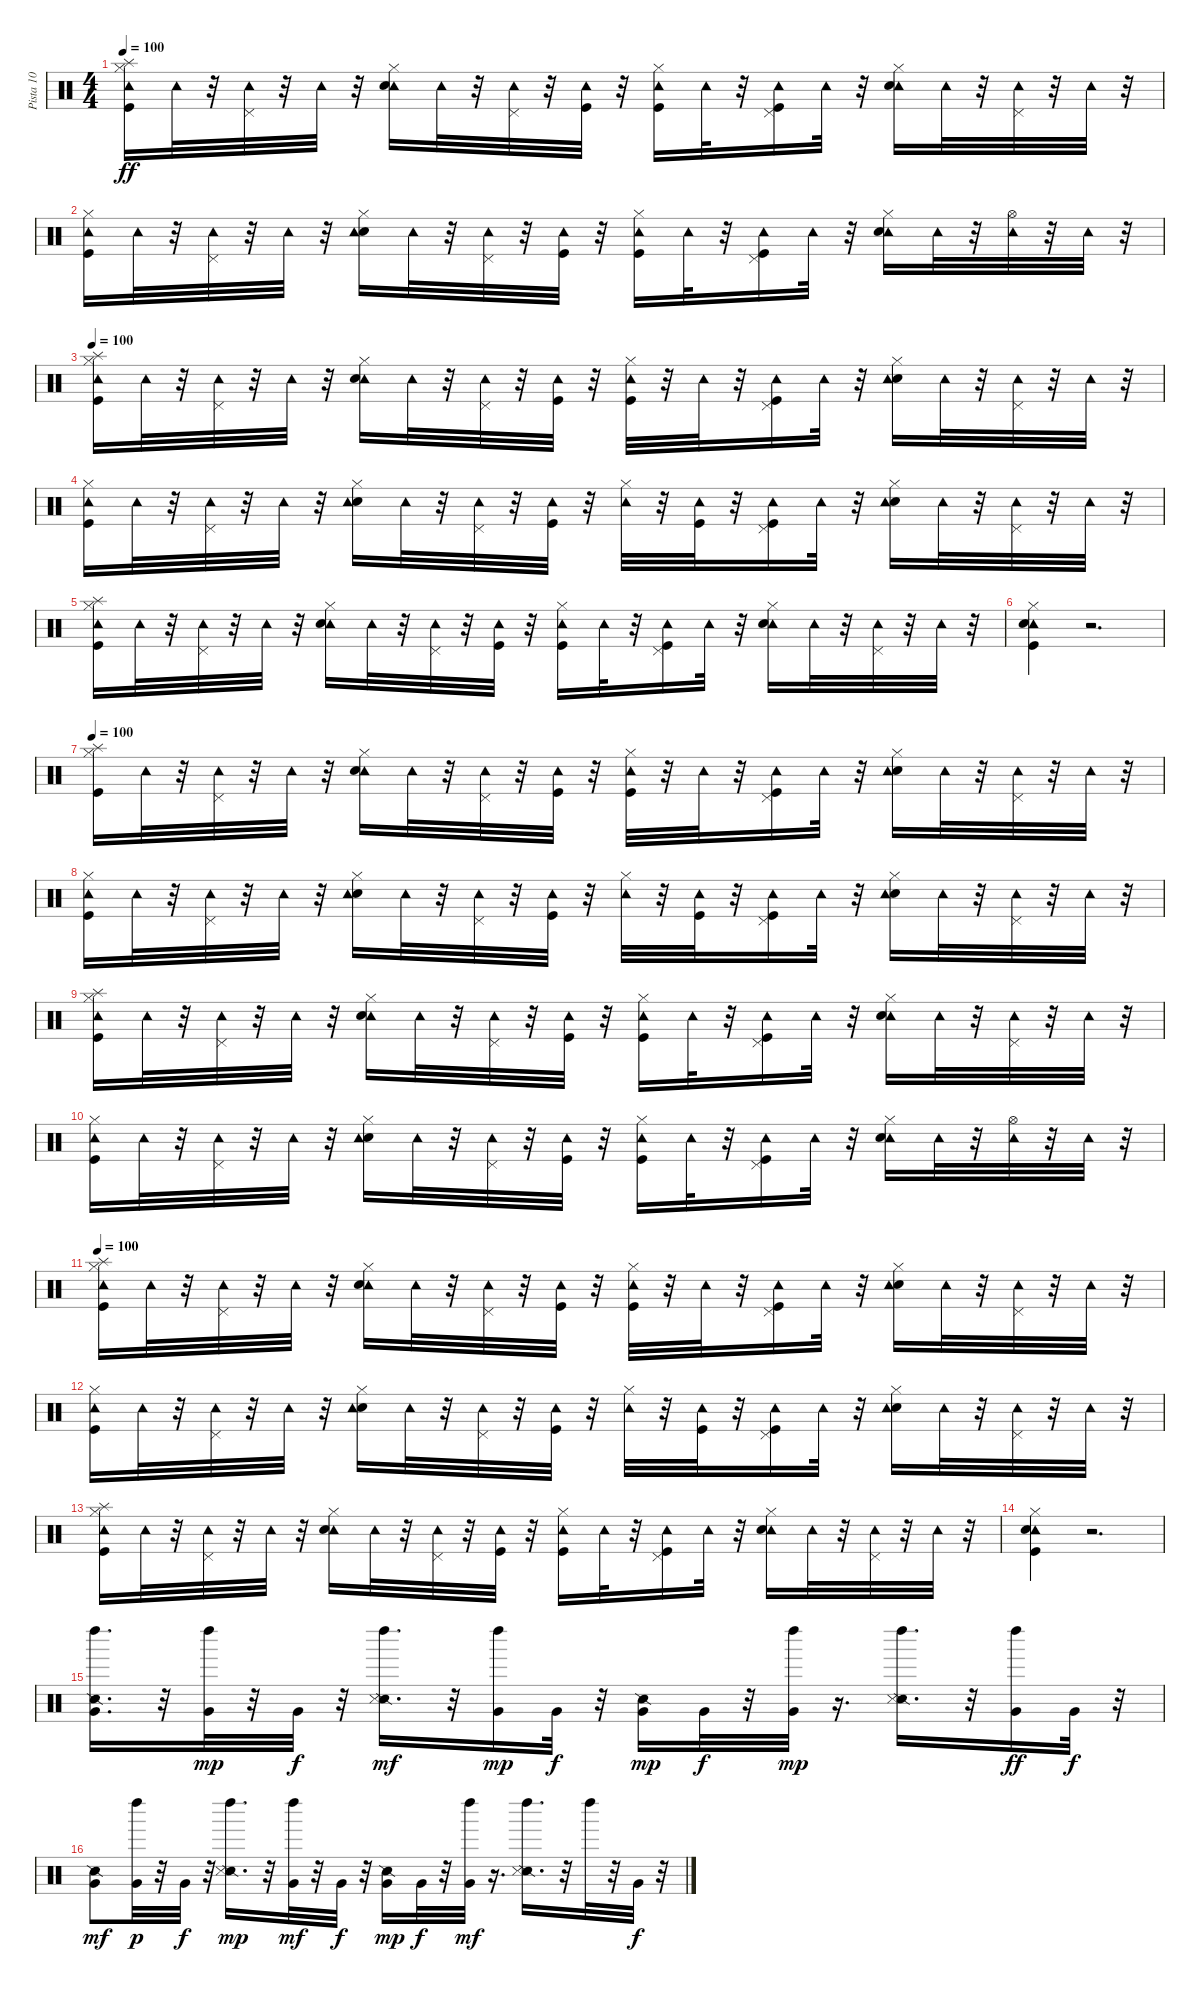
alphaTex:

\track ("Pista 10" "Pista 10") {instrument percussion}
\staff {score}
\articulation defaults
\ts (4 4)
\tempo 100
\clef neutral
\ks c
("Splash (hit)" "Hi-Hat (closed)" "Kick (hit)" "Tambourine (hit)").16{dy ff} "Tambourine (hit)".32 r.32 ("Tambourine (hit)" "Pedal Hi-Hat (hit)").32 r.32 "Tambourine (hit)".32 r.32 ("Tambourine (hit)" "Hi-Hat (closed)" "Snare (hit) 2").16 "Tambourine (hit)".32 r.32 ("Tambourine (hit)" "Pedal Hi-Hat (hit)").32 r.32 ("Tambourine (hit)" "Kick (hit)").32 r.32 ("Tambourine (hit)" "Hi-Hat (closed)" "Kick (hit)").16 "Tambourine (hit)".32 r.32 ("Tambourine (hit)" "Pedal Hi-Hat (hit)" "Kick (hit)").16 "Tambourine (hit)".32 r.32 ("Tambourine (hit)" "Hi-Hat (closed)" "Snare (hit) 2").16 "Tambourine (hit)".32 r.32 ("Tambourine (hit)" "Pedal Hi-Hat (hit)").32 r.32 "Tambourine (hit)".32 r.32 |
("Tambourine (hit)" "Hi-Hat (closed)" "Kick (hit)").16 "Tambourine (hit)".32 r.32 ("Pedal Hi-Hat (hit)" "Tambourine (hit)").32 r.32 "Tambourine (hit)".32 r.32 ("Hi-Hat (closed)" "Snare (hit) 2" "Tambourine (hit)").16 "Tambourine (hit)".32 r.32 ("Tambourine (hit)" "Pedal Hi-Hat (hit)").32 r.32 ("Tambourine (hit)" "Kick (hit)").32 r.32 ("Tambourine (hit)" "Hi-Hat (closed)" "Kick (hit)").16 "Tambourine (hit)".32 r.32 ("Tambourine (hit)" "Pedal Hi-Hat (hit)" "Kick (hit)").16 "Tambourine (hit)".32 r.32 ("Tambourine (hit)" "Hi-Hat (closed)" "Snare (hit) 2").16 "Tambourine (hit)".32 r.32 ("Tambourine (hit)" "Hi-Hat (open)").32 r.32 "Tambourine (hit)".32 r.32 |
\tempo 100
("Tambourine (hit)" "Hi-Hat (closed)" "Splash (hit)" "Kick (hit)").16 "Tambourine (hit)".32 r.32 ("Tambourine (hit)" "Pedal Hi-Hat (hit)").32 r.32 "Tambourine (hit)".32 r.32 ("Tambourine (hit)" "Hi-Hat (closed)" "Snare (hit) 2").16 "Tambourine (hit)".32 r.32 ("Tambourine (hit)" "Pedal Hi-Hat (hit)").32 r.32 ("Kick (hit)" "Tambourine (hit)").32 r.32 ("Tambourine (hit)" "Hi-Hat (closed)" "Kick (hit)").32 r.32 "Tambourine (hit)".32 r.32 ("Pedal Hi-Hat (hit)" "Kick (hit)" "Tambourine (hit)").16 "Tambourine (hit)".32 r.32 ("Hi-Hat (closed)" "Snare (hit) 2" "Tambourine (hit)").16 "Tambourine (hit)".32 r.32 ("Pedal Hi-Hat (hit)" "Tambourine (hit)").32 r.32 "Tambourine (hit)".32 r.32 |
("Hi-Hat (closed)" "Kick (hit)" "Tambourine (hit)").16 "Tambourine (hit)".32 r.32 ("Tambourine (hit)" "Pedal Hi-Hat (hit)").32 r.32 "Tambourine (hit)".32 r.32 ("Hi-Hat (closed)" "Snare (hit) 2" "Tambourine (hit)").16 "Tambourine (hit)".32 r.32 ("Pedal Hi-Hat (hit)" "Tambourine (hit)").32 r.32 ("Kick (hit)" "Tambourine (hit)").32 r.32 ("Hi-Hat (closed)" "Tambourine (hit)").32 r.32 ("Kick (hit)" "Tambourine (hit)").32 r.32 ("Pedal Hi-Hat (hit)" "Kick (hit)" "Tambourine (hit)").16 "Tambourine (hit)".32 r.32 ("Hi-Hat (closed)" "Snare (hit) 2" "Tambourine (hit)").16 "Tambourine (hit)".32 r.32 ("Pedal Hi-Hat (hit)" "Tambourine (hit)").32 r.32 "Tambourine (hit)".32 r.32 |
("Splash (hit)" "Hi-Hat (closed)" "Kick (hit)" "Tambourine (hit)").16 "Tambourine (hit)".32 r.32 ("Tambourine (hit)" "Pedal Hi-Hat (hit)").32 r.32 "Tambourine (hit)".32 r.32 ("Tambourine (hit)" "Hi-Hat (closed)" "Snare (hit) 2").16 "Tambourine (hit)".32 r.32 ("Tambourine (hit)" "Pedal Hi-Hat (hit)").32 r.32 ("Tambourine (hit)" "Kick (hit)").32 r.32 ("Tambourine (hit)" "Hi-Hat (closed)" "Kick (hit)").16 "Tambourine (hit)".32 r.32 ("Tambourine (hit)" "Pedal Hi-Hat (hit)" "Kick (hit)").16 "Tambourine (hit)".32 r.32 ("Tambourine (hit)" "Hi-Hat (closed)" "Snare (hit) 2").16 "Tambourine (hit)".32 r.32 ("Tambourine (hit)" "Pedal Hi-Hat (hit)").32 r.32 "Tambourine (hit)".32 r.32 |
("Tambourine (hit)" "Hi-Hat (closed)" "Kick (hit)" "Snare (hit) 2").4 r.2{d} |
\tempo 100
("Hi-Hat (closed)" "Splash (hit)" "Kick (hit)").16 "Tambourine (hit)".32 r.32 ("Tambourine (hit)" "Pedal Hi-Hat (hit)").32 r.32 "Tambourine (hit)".32 r.32 ("Tambourine (hit)" "Hi-Hat (closed)" "Snare (hit) 2").16 "Tambourine (hit)".32 r.32 ("Tambourine (hit)" "Pedal Hi-Hat (hit)").32 r.32 ("Kick (hit)" "Tambourine (hit)").32 r.32 ("Tambourine (hit)" "Hi-Hat (closed)" "Kick (hit)").32 r.32 "Tambourine (hit)".32 r.32 ("Pedal Hi-Hat (hit)" "Kick (hit)" "Tambourine (hit)").16 "Tambourine (hit)".32 r.32 ("Hi-Hat (closed)" "Snare (hit) 2" "Tambourine (hit)").16 "Tambourine (hit)".32 r.32 ("Pedal Hi-Hat (hit)" "Tambourine (hit)").32 r.32 "Tambourine (hit)".32 r.32 |
("Hi-Hat (closed)" "Kick (hit)" "Tambourine (hit)").16 "Tambourine (hit)".32 r.32 ("Tambourine (hit)" "Pedal Hi-Hat (hit)").32 r.32 "Tambourine (hit)".32 r.32 ("Hi-Hat (closed)" "Snare (hit) 2" "Tambourine (hit)").16 "Tambourine (hit)".32 r.32 ("Pedal Hi-Hat (hit)" "Tambourine (hit)").32 r.32 ("Kick (hit)" "Tambourine (hit)").32 r.32 ("Hi-Hat (closed)" "Tambourine (hit)").32 r.32 ("Kick (hit)" "Tambourine (hit)").32 r.32 ("Pedal Hi-Hat (hit)" "Kick (hit)" "Tambourine (hit)").16 "Tambourine (hit)".32 r.32 ("Hi-Hat (closed)" "Snare (hit) 2" "Tambourine (hit)").16 "Tambourine (hit)".32 r.32 ("Pedal Hi-Hat (hit)" "Tambourine (hit)").32 r.32 "Tambourine (hit)".32 r.32 |
("Splash (hit)" "Hi-Hat (closed)" "Kick (hit)" "Tambourine (hit)").16 "Tambourine (hit)".32 r.32 ("Tambourine (hit)" "Pedal Hi-Hat (hit)").32 r.32 "Tambourine (hit)".32 r.32 ("Tambourine (hit)" "Hi-Hat (closed)" "Snare (hit) 2").16 "Tambourine (hit)".32 r.32 ("Tambourine (hit)" "Pedal Hi-Hat (hit)").32 r.32 ("Tambourine (hit)" "Kick (hit)").32 r.32 ("Tambourine (hit)" "Hi-Hat (closed)" "Kick (hit)").16 "Tambourine (hit)".32 r.32 ("Tambourine (hit)" "Pedal Hi-Hat (hit)" "Kick (hit)").16 "Tambourine (hit)".32 r.32 ("Tambourine (hit)" "Hi-Hat (closed)" "Snare (hit) 2").16 "Tambourine (hit)".32 r.32 ("Tambourine (hit)" "Pedal Hi-Hat (hit)").32 r.32 "Tambourine (hit)".32 r.32 |
("Tambourine (hit)" "Hi-Hat (closed)" "Kick (hit)").16 "Tambourine (hit)".32 r.32 ("Pedal Hi-Hat (hit)" "Tambourine (hit)").32 r.32 "Tambourine (hit)".32 r.32 ("Hi-Hat (closed)" "Snare (hit) 2" "Tambourine (hit)").16 "Tambourine (hit)".32 r.32 ("Tambourine (hit)" "Pedal Hi-Hat (hit)").32 r.32 ("Tambourine (hit)" "Kick (hit)").32 r.32 ("Tambourine (hit)" "Hi-Hat (closed)" "Kick (hit)").16 "Tambourine (hit)".32 r.32 ("Tambourine (hit)" "Pedal Hi-Hat (hit)" "Kick (hit)").16 "Tambourine (hit)".32 r.32 ("Tambourine (hit)" "Hi-Hat (closed)" "Snare (hit) 2").16 "Tambourine (hit)".32 r.32 ("Tambourine (hit)" "Hi-Hat (open)").32 r.32 "Tambourine (hit)".32 r.32 |
\tempo 100
("Tambourine (hit)" "Hi-Hat (closed)" "Splash (hit)" "Kick (hit)").16 "Tambourine (hit)".32 r.32 ("Tambourine (hit)" "Pedal Hi-Hat (hit)").32 r.32 "Tambourine (hit)".32 r.32 ("Tambourine (hit)" "Hi-Hat (closed)" "Snare (hit) 2").16 "Tambourine (hit)".32 r.32 ("Tambourine (hit)" "Pedal Hi-Hat (hit)").32 r.32 ("Kick (hit)" "Tambourine (hit)").32 r.32 ("Tambourine (hit)" "Hi-Hat (closed)" "Kick (hit)").32 r.32 "Tambourine (hit)".32 r.32 ("Pedal Hi-Hat (hit)" "Kick (hit)" "Tambourine (hit)").16 "Tambourine (hit)".32 r.32 ("Hi-Hat (closed)" "Snare (hit) 2" "Tambourine (hit)").16 "Tambourine (hit)".32 r.32 ("Pedal Hi-Hat (hit)" "Tambourine (hit)").32 r.32 "Tambourine (hit)".32 r.32 |
("Hi-Hat (closed)" "Kick (hit)" "Tambourine (hit)").16 "Tambourine (hit)".32 r.32 ("Tambourine (hit)" "Pedal Hi-Hat (hit)").32 r.32 "Tambourine (hit)".32 r.32 ("Hi-Hat (closed)" "Snare (hit) 2" "Tambourine (hit)").16 "Tambourine (hit)".32 r.32 ("Pedal Hi-Hat (hit)" "Tambourine (hit)").32 r.32 ("Kick (hit)" "Tambourine (hit)").32 r.32 ("Hi-Hat (closed)" "Tambourine (hit)").32 r.32 ("Kick (hit)" "Tambourine (hit)").32 r.32 ("Pedal Hi-Hat (hit)" "Kick (hit)" "Tambourine (hit)").16 "Tambourine (hit)".32 r.32 ("Hi-Hat (closed)" "Snare (hit) 2" "Tambourine (hit)").16 "Tambourine (hit)".32 r.32 ("Pedal Hi-Hat (hit)" "Tambourine (hit)").32 r.32 "Tambourine (hit)".32 r.32 |
("Splash (hit)" "Hi-Hat (closed)" "Kick (hit)" "Tambourine (hit)").16 "Tambourine (hit)".32 r.32 ("Tambourine (hit)" "Pedal Hi-Hat (hit)").32 r.32 "Tambourine (hit)".32 r.32 ("Tambourine (hit)" "Hi-Hat (closed)" "Snare (hit) 2").16 "Tambourine (hit)".32 r.32 ("Tambourine (hit)" "Pedal Hi-Hat (hit)").32 r.32 ("Tambourine (hit)" "Kick (hit)").32 r.32 ("Tambourine (hit)" "Hi-Hat (closed)" "Kick (hit)").16 "Tambourine (hit)".32 r.32 ("Tambourine (hit)" "Pedal Hi-Hat (hit)" "Kick (hit)").16 "Tambourine (hit)".32 r.32 ("Tambourine (hit)" "Hi-Hat (closed)" "Snare (hit) 2").16 "Tambourine (hit)".32 r.32 ("Tambourine (hit)" "Pedal Hi-Hat (hit)").32 r.32 "Tambourine (hit)".32 r.32 |
("Tambourine (hit)" "Hi-Hat (closed)" "Kick (hit)" "Snare (hit) 2").4 r.2{d} |
("Snare (side stick) 2" "Very Low Tom (hit)" "Left Maraca (hit)").16{d} r.32 ("Very Low Tom (hit)" "Left Maraca (hit)").32{dy mp} r.32 "Very Low Tom (hit)".32{dy f} r.32 ("Snare (side stick) 2" "Metronome (hit)" "Left Maraca (hit)").16{d dy mf} r.32 ("Very Low Tom (hit)" "Left Maraca (hit)").16{dy mp} "Very Low Tom (hit)".32{dy f} r.32 ("Snare (side stick) 2" "Very Low Tom (hit)").16{dy mp} "Very Low Tom (hit)".32{dy f} r.32 ("Very Low Tom (hit)" "Left Maraca (hit)").32{dy mp} r.16{d} ("Snare (side stick) 2" "Metronome (hit)" "Left Maraca (hit)").16{d} r.32 ("Very Low Tom (hit)" "Left Maraca (hit)").16{dy ff} "Very Low Tom (hit)".32{dy f} r.32 |
("Snare (side stick) 2" "Very Low Tom (hit)").8{dy mf} ("Very Low Tom (hit)" "Left Maraca (hit)").32{dy p} r.32 "Very Low Tom (hit)".32{dy f} r.32 ("Snare (side stick) 2" "Metronome (hit)" "Left Maraca (hit)").16{d dy mp} r.32 ("Very Low Tom (hit)" "Left Maraca (hit)").32{dy mf} r.32 "Very Low Tom (hit)".32{dy f} r.32 ("Snare (side stick) 2" "Very Low Tom (hit)").16{dy mp} "Very Low Tom (hit)".32{dy f} r.32 ("Very Low Tom (hit)" "Left Maraca (hit)").32{dy mf} r.16{d} ("Snare (side stick) 2" "Metronome (hit)" "Left Maraca (hit)").16{d} r.32 "Left Maraca (hit)".32 r.32 "Very Low Tom (hit)".32{dy f} r.32
